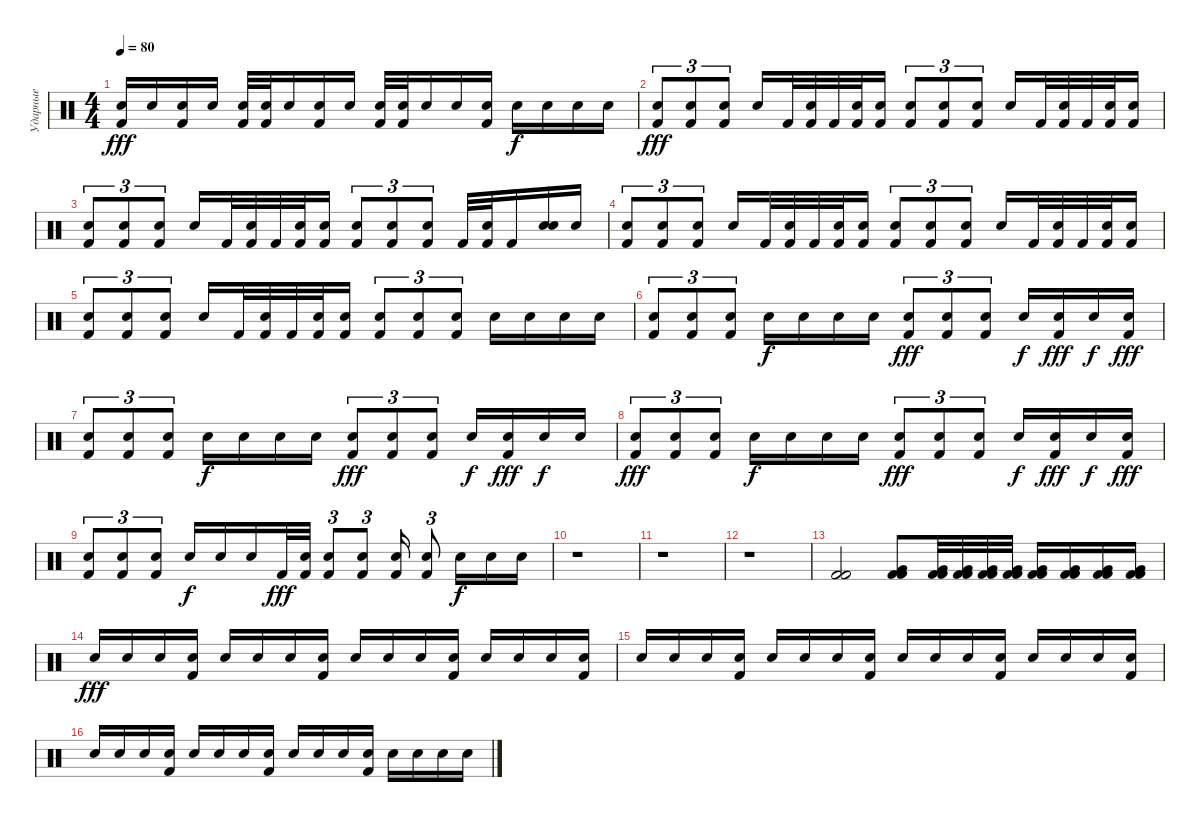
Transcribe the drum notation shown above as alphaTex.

\track ("Ударные" "Ударные") {instrument percussion}
\staff
\articulation defaults
\ts (4 4)
\tempo 80
\clef neutral
\ks c
("Kick (hit) 2" "Snare (hit)").16{dy fff} "Snare (hit)".16 ("Kick (hit) 2" "Snare (hit)").16 "Snare (hit)".16 ("Kick (hit) 2" "Snare (hit)").32 ("Kick (hit) 2" "Snare (hit)").32 "Snare (hit)".16 ("Kick (hit) 2" "Snare (hit)").16 "Snare (hit)".16 ("Kick (hit) 2" "Snare (hit)").32 ("Kick (hit) 2" "Snare (hit)").32 "Snare (hit)".16 "Snare (hit)".16 ("Kick (hit) 2" "Snare (hit)").16 "Snare (hit)".16{dy f} "Snare (hit)".16 "Snare (hit)".16 "Snare (hit)".16 |
("Kick (hit) 2" "Snare (hit)").8{tu (3 2) dy fff} ("Kick (hit) 2" "Snare (hit)").8{tu (3 2)} ("Kick (hit) 2" "Snare (hit)").8{tu (3 2)} "Snare (hit)".16 "Kick (hit) 2".32 ("Kick (hit) 2" "Snare (hit)").32 "Kick (hit) 2".32 ("Kick (hit) 2" "Snare (hit)").32 ("Kick (hit) 2" "Snare (hit)").16 ("Kick (hit) 2" "Snare (hit)").8{tu (3 2)} ("Kick (hit) 2" "Snare (hit)").8{tu (3 2)} ("Kick (hit) 2" "Snare (hit)").8{tu (3 2)} "Snare (hit)".16 "Kick (hit) 2".32 ("Kick (hit) 2" "Snare (hit)").32 "Kick (hit) 2".32 ("Kick (hit) 2" "Snare (hit)").32 ("Kick (hit) 2" "Snare (hit)").16 |
("Kick (hit) 2" "Snare (hit)").8{tu (3 2)} ("Kick (hit) 2" "Snare (hit)").8{tu (3 2)} ("Kick (hit) 2" "Snare (hit)").8{tu (3 2)} "Snare (hit)".16 "Kick (hit) 2".32 ("Kick (hit) 2" "Snare (hit)").32 "Kick (hit) 2".32 ("Kick (hit) 2" "Snare (hit)").32 ("Kick (hit) 2" "Snare (hit)").16 ("Kick (hit) 2" "Snare (hit)").8{tu (3 2)} ("Kick (hit) 2" "Snare (hit)").8{tu (3 2)} ("Kick (hit) 2" "Snare (hit)").8{tu (3 2)} "Kick (hit) 2".32 ("Kick (hit) 2" "Snare (hit)").32 "Kick (hit) 2".16 ("Snare (hit)" "Snare (hit)").16 "Snare (hit)".16 |
("Kick (hit) 2" "Snare (hit)").8{tu (3 2)} ("Kick (hit) 2" "Snare (hit)").8{tu (3 2)} ("Kick (hit) 2" "Snare (hit)").8{tu (3 2)} "Snare (hit)".16 "Kick (hit) 2".32 ("Kick (hit) 2" "Snare (hit)").32 "Kick (hit) 2".32 ("Kick (hit) 2" "Snare (hit)").32 ("Kick (hit) 2" "Snare (hit)").16 ("Kick (hit) 2" "Snare (hit)").8{tu (3 2)} ("Kick (hit) 2" "Snare (hit)").8{tu (3 2)} ("Kick (hit) 2" "Snare (hit)").8{tu (3 2)} "Snare (hit)".16 "Kick (hit) 2".32 ("Kick (hit) 2" "Snare (hit)").32 "Kick (hit) 2".32 ("Kick (hit) 2" "Snare (hit)").32 ("Kick (hit) 2" "Snare (hit)").16 |
("Kick (hit) 2" "Snare (hit)").8{tu (3 2)} ("Kick (hit) 2" "Snare (hit)").8{tu (3 2)} ("Kick (hit) 2" "Snare (hit)").8{tu (3 2)} "Snare (hit)".16 "Kick (hit) 2".32 ("Kick (hit) 2" "Snare (hit)").32 "Kick (hit) 2".32 ("Kick (hit) 2" "Snare (hit)").32 ("Kick (hit) 2" "Snare (hit)").16 ("Kick (hit) 2" "Snare (hit)").8{tu (3 2)} ("Kick (hit) 2" "Snare (hit)").8{tu (3 2)} ("Kick (hit) 2" "Snare (hit)").8{tu (3 2)} "Snare (hit)".16 "Snare (hit)".16 "Snare (hit)".16 "Snare (hit)".16 |
("Kick (hit) 2" "Snare (hit)").8{tu (3 2)} ("Kick (hit) 2" "Snare (hit)").8{tu (3 2)} ("Kick (hit) 2" "Snare (hit)").8{tu (3 2)} "Snare (hit)".16{dy f} "Snare (hit)".16 "Snare (hit)".16 "Snare (hit)".16 ("Kick (hit) 2" "Snare (hit)").8{tu (3 2) dy fff} ("Kick (hit) 2" "Snare (hit)").8{tu (3 2)} ("Kick (hit) 2" "Snare (hit)").8{tu (3 2)} "Snare (hit)".16{dy f} ("Kick (hit) 2" "Snare (hit)").16{dy fff} "Snare (hit)".16{dy f} ("Kick (hit) 2" "Snare (hit)").16{dy fff} |
("Kick (hit) 2" "Snare (hit)").8{tu (3 2)} ("Kick (hit) 2" "Snare (hit)").8{tu (3 2)} ("Kick (hit) 2" "Snare (hit)").8{tu (3 2)} "Snare (hit)".16{dy f} "Snare (hit)".16 "Snare (hit)".16 "Snare (hit)".16 ("Kick (hit) 2" "Snare (hit)").8{tu (3 2) dy fff} ("Kick (hit) 2" "Snare (hit)").8{tu (3 2)} ("Kick (hit) 2" "Snare (hit)").8{tu (3 2)} "Snare (hit)".16{dy f} ("Kick (hit) 2" "Snare (hit)").16{dy fff} "Snare (hit)".16{dy f} "Snare (hit)".16 |
("Kick (hit) 2" "Snare (hit)").8{tu (3 2) dy fff} ("Kick (hit) 2" "Snare (hit)").8{tu (3 2)} ("Kick (hit) 2" "Snare (hit)").8{tu (3 2)} "Snare (hit)".16{dy f} "Snare (hit)".16 "Snare (hit)".16 "Snare (hit)".16 ("Kick (hit) 2" "Snare (hit)").8{tu (3 2) dy fff} ("Kick (hit) 2" "Snare (hit)").8{tu (3 2)} ("Kick (hit) 2" "Snare (hit)").8{tu (3 2)} "Snare (hit)".16{dy f} ("Kick (hit) 2" "Snare (hit)").16{dy fff} "Snare (hit)".16{dy f} ("Kick (hit) 2" "Snare (hit)").16{dy fff} |
("Kick (hit) 2" "Snare (hit)").8{tu (3 2)} ("Kick (hit) 2" "Snare (hit)").8{tu (3 2)} ("Kick (hit) 2" "Snare (hit)").8{tu (3 2)} "Snare (hit)".16{dy f} "Snare (hit)".16 "Snare (hit)".16 "Kick (hit) 2".32{dy fff} ("Kick (hit) 2" "Snare (hit)").32 ("Kick (hit) 2" "Snare (hit)").8{tu (3 2)} ("Kick (hit) 2" "Snare (hit)").8{tu (3 2)} ("Kick (hit) 2" "Snare (hit)").16 ("Kick (hit) 2" "Snare (hit)").8{tu (3 2)} "Snare (hit)".16{dy f} "Snare (hit)".16 "Snare (hit)".16 |
r.1 |
r.1 |
r.1 |
("Kick (hit) 2" "Kick (hit) 2").2 ("Very Low Tom (hit)" "Kick (hit) 2" "Kick (hit) 2").8 ("Very Low Tom (hit)" "Kick (hit) 2" "Kick (hit) 2").32 ("Very Low Tom (hit)" "Kick (hit) 2" "Kick (hit) 2").32 ("Very Low Tom (hit)" "Kick (hit) 2" "Kick (hit) 2").32 ("Very Low Tom (hit)" "Kick (hit) 2" "Kick (hit) 2").32 ("Very Low Tom (hit)" "Kick (hit) 2" "Kick (hit) 2").16 ("Very Low Tom (hit)" "Kick (hit) 2" "Kick (hit) 2").16 ("Very Low Tom (hit)" "Kick (hit) 2" "Kick (hit) 2").16 ("Very Low Tom (hit)" "Kick (hit) 2" "Kick (hit) 2").16 |
"Snare (hit)".16{dy fff} "Snare (hit)".16 "Snare (hit)".16 ("Kick (hit) 2" "Snare (hit)").16 "Snare (hit)".16 "Snare (hit)".16 "Snare (hit)".16 ("Kick (hit) 2" "Snare (hit)").16 "Snare (hit)".16 "Snare (hit)".16 "Snare (hit)".16 ("Kick (hit) 2" "Snare (hit)").16 "Snare (hit)".16 "Snare (hit)".16 "Snare (hit)".16 ("Kick (hit) 2" "Snare (hit)").16 |
"Snare (hit)".16 "Snare (hit)".16 "Snare (hit)".16 ("Kick (hit) 2" "Snare (hit)").16 "Snare (hit)".16 "Snare (hit)".16 "Snare (hit)".16 ("Kick (hit) 2" "Snare (hit)").16 "Snare (hit)".16 "Snare (hit)".16 "Snare (hit)".16 ("Kick (hit) 2" "Snare (hit)").16 "Snare (hit)".16 "Snare (hit)".16 "Snare (hit)".16 ("Kick (hit) 2" "Snare (hit)").16 |
"Snare (hit)".16 "Snare (hit)".16 "Snare (hit)".16 ("Kick (hit) 2" "Snare (hit)").16 "Snare (hit)".16 "Snare (hit)".16 "Snare (hit)".16 ("Kick (hit) 2" "Snare (hit)").16 "Snare (hit)".16 "Snare (hit)".16 "Snare (hit)".16 ("Kick (hit) 2" "Snare (hit)").16 "Snare (hit)".16 "Snare (hit)".16 "Snare (hit)".16 "Snare (hit)".16
